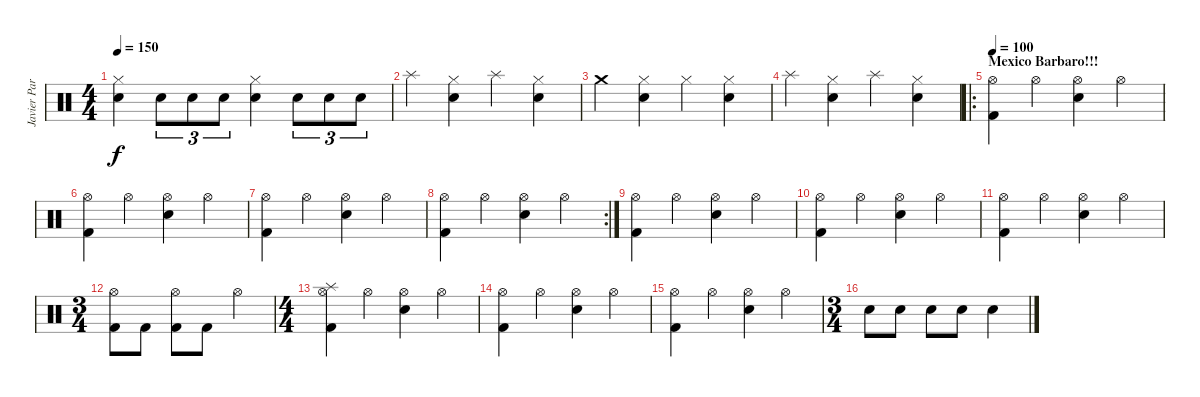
\track ("Javier Partida" "Javier Par") {instrument percussion}
\staff {score}
\articulation defaults
\ts (4 4)
\tempo 150
\clef neutral
\ks c
("Snare (hit) 2" "Hi-Hat (closed)").4{dy f} "Snare (hit) 2".8{tu (3 2)} "Snare (hit) 2".8{tu (3 2)} "Snare (hit) 2".8{tu (3 2)} ("Snare (hit) 2" "Hi-Hat (closed)").4 "Snare (hit) 2".8{tu (3 2)} "Snare (hit) 2".8{tu (3 2)} "Snare (hit) 2".8{tu (3 2)} |
"Splash (hit)".4 ("Snare (hit) 2" "Hi-Hat (closed)").4 "Splash (hit)".4 ("Snare (hit) 2" "Hi-Hat (closed)").4 |
"Crash medium (hit)".4 ("Snare (hit) 2" "Hi-Hat (closed)").4 "Hi-Hat (closed)".4 ("Snare (hit) 2" "Hi-Hat (closed)").4 |
"Splash (hit)".4 ("Snare (hit) 2" "Hi-Hat (closed)").4 "Splash (hit)".4 ("Snare (hit) 2" "Hi-Hat (closed)").4 |
\ro
\section ("" "Mexico Barbaro!!!")
\tempo 100
("Kick (hit) 2" "Hi-Hat (open)").4 "Hi-Hat (open)".4 ("Snare (hit) 2" "Hi-Hat (open)").4 "Hi-Hat (open)".4 |
("Kick (hit) 2" "Hi-Hat (open)").4 "Hi-Hat (open)".4 ("Snare (hit) 2" "Hi-Hat (open)").4 "Hi-Hat (open)".4 |
("Kick (hit) 2" "Hi-Hat (open)").4 "Hi-Hat (open)".4 ("Snare (hit) 2" "Hi-Hat (open)").4 "Hi-Hat (open)".4 |
\rc 2
("Kick (hit) 2" "Hi-Hat (open)").4 "Hi-Hat (open)".4 ("Snare (hit) 2" "Hi-Hat (open)").4 "Hi-Hat (open)".4 |
("Kick (hit) 2" "Hi-Hat (open)").4 "Hi-Hat (open)".4 ("Snare (hit) 2" "Hi-Hat (open)").4 "Hi-Hat (open)".4 |
("Kick (hit) 2" "Hi-Hat (open)").4 "Hi-Hat (open)".4 ("Snare (hit) 2" "Hi-Hat (open)").4 "Hi-Hat (open)".4 |
("Kick (hit) 2" "Hi-Hat (open)").4 "Hi-Hat (open)".4 ("Snare (hit) 2" "Hi-Hat (open)").4 "Hi-Hat (open)".4 |
\ts (3 4)
("Kick (hit) 2" "Hi-Hat (open)").8 "Kick (hit) 2".8 ("Kick (hit) 2" "Hi-Hat (open)").8 "Kick (hit) 2".8 "Hi-Hat (open)".4 |
\ts (4 4)
("Kick (hit) 2" "Hi-Hat (open)" "Splash (hit)").4 "Hi-Hat (open)".4 ("Snare (hit) 2" "Hi-Hat (open)").4 "Hi-Hat (open)".4 |
("Kick (hit) 2" "Hi-Hat (open)").4 "Hi-Hat (open)".4 ("Snare (hit) 2" "Hi-Hat (open)").4 "Hi-Hat (open)".4 |
("Kick (hit) 2" "Hi-Hat (open)").4 "Hi-Hat (open)".4 ("Snare (hit) 2" "Hi-Hat (open)").4 "Hi-Hat (open)".4 |
\ts (3 4)
"Snare (hit) 2".8 "Snare (hit) 2".8 "Snare (hit) 2".8 "Snare (hit) 2".8 "Snare (hit) 2".4
